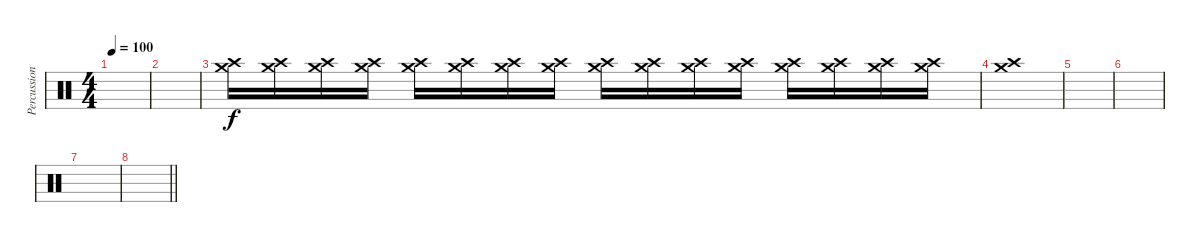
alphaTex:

\track ("Percussion" "Percussion") {instrument percussion}
\staff {score}
\articulation defaults
\ts (4 4)
\tempo 100
\clef neutral
\ks c
|
|
("Crash medium (hit)" "Crash high (hit)").16{volume 13} ("Crash medium (hit)" "Crash high (hit)").16 ("Crash medium (hit)" "Crash high (hit)").16 ("Crash medium (hit)" "Crash high (hit)").16 ("Crash medium (hit)" "Crash high (hit)").16 ("Crash medium (hit)" "Crash high (hit)").16 ("Crash medium (hit)" "Crash high (hit)").16 ("Crash medium (hit)" "Crash high (hit)").16 ("Crash medium (hit)" "Crash high (hit)").16 ("Crash medium (hit)" "Crash high (hit)").16 ("Crash medium (hit)" "Crash high (hit)").16 ("Crash medium (hit)" "Crash high (hit)").16 ("Crash medium (hit)" "Crash high (hit)").16 ("Crash medium (hit)" "Crash high (hit)").16 ("Crash medium (hit)" "Crash high (hit)").16 ("Crash medium (hit)" "Crash high (hit)").16 |
("Crash medium (hit)" "Crash high (hit)").1 |
|
|
|
\barLineRight lightlight
